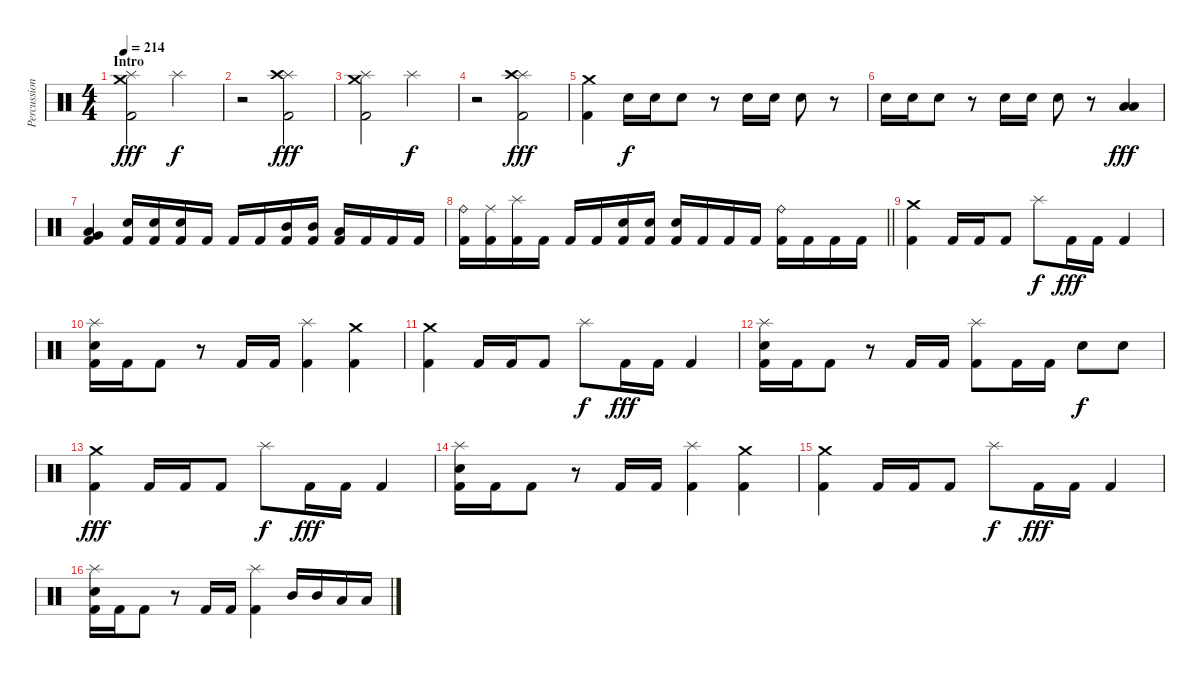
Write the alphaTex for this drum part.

\track ("Percussion" "Percussion") {instrument percussion}
\staff {score}
\articulation defaults
\ts (4 4)
\section ("" "Intro")
\tempo 214
\clef neutral
\ks c
("Splash (hit)" "Crash medium (hit)" "Kick (hit) 2").2{dy fff} "Splash (hit)".2{dy f} |
r.2 ("Splash (hit)" "Crash high (hit)" "Kick (hit) 2").2{dy fff} |
("Splash (hit)" "Crash medium (hit)" "Kick (hit) 2").2 "Splash (hit)".2{dy f} |
r.2 ("Splash (hit)" "Crash high (hit)" "Kick (hit) 2").2{dy fff} |
("Crash medium (hit)" "Kick (hit) 2").4 "Electric Snare (hit)".16{dy f} "Electric Snare (hit)".16 "Electric Snare (hit)".8 r.8 "Electric Snare (hit)".16 "Electric Snare (hit)".16 "Electric Snare (hit)".8 r.8 |
"Electric Snare (hit)".16 "Electric Snare (hit)".16 "Electric Snare (hit)".8 r.8 "Electric Snare (hit)".16 "Electric Snare (hit)".16 "Electric Snare (hit)".8 r.8 ("Low Tom (hit)" "Low Floor Tom (hit)").4{dy fff} |
("Very Low Tom (hit)" "Low Floor Tom (hit)" "Kick (hit) 2").4 ("Electric Snare (hit)" "Kick (hit) 2").16 ("Electric Snare (hit)" "Kick (hit) 2").16 ("Electric Snare (hit)" "Kick (hit) 2").16 "Kick (hit) 2".16 "Kick (hit) 2".16 "Kick (hit) 2".16 ("Mid Tom (hit)" "Kick (hit) 2").16 ("Mid Tom (hit)" "Kick (hit) 2").16 ("Low Tom (hit)" "Kick (hit) 2").16 "Kick (hit) 2".16 "Kick (hit) 2".16 "Kick (hit) 2".16 |
\barLineRight lightlight
("Ride (bell)" "Kick (hit) 2").16 ("Ride (middle)" "Kick (hit) 2").16 ("Splash (hit)" "Kick (hit) 2").16 "Kick (hit) 2".16 "Kick (hit) 2".16 "Kick (hit) 2".16 ("Electric Snare (hit)" "Kick (hit) 2").16 ("Electric Snare (hit)" "Kick (hit) 2").16 ("Electric Snare (hit)" "Kick (hit) 2").16 "Kick (hit) 2".16 "Kick (hit) 2".16 "Kick (hit) 2".16 ("Ride (bell)" "Kick (hit) 2").16 "Kick (hit) 2".16 "Kick (hit) 2".16 "Kick (hit) 2".16 |
\section ("" "")
("Crash medium (hit)" "Kick (hit) 2").4 "Kick (hit) 2".16 "Kick (hit) 2".16 "Kick (hit) 2".8 "Splash (hit)".8{dy f} "Kick (hit) 2".16{dy fff} "Kick (hit) 2".16 "Kick (hit) 2".4 |
("Splash (hit)" "Electric Snare (hit)" "Kick (hit) 2").16 "Kick (hit) 2".16 "Kick (hit) 2".8 r.8 "Kick (hit) 2".16 "Kick (hit) 2".16 ("Splash (hit)" "Kick (hit) 2").4 ("Crash medium (hit)" "Kick (hit) 2").4 |
("Crash medium (hit)" "Kick (hit) 2").4 "Kick (hit) 2".16 "Kick (hit) 2".16 "Kick (hit) 2".8 "Splash (hit)".8{dy f} "Kick (hit) 2".16{dy fff} "Kick (hit) 2".16 "Kick (hit) 2".4 |
("Splash (hit)" "Electric Snare (hit)" "Kick (hit) 2").16 "Kick (hit) 2".16 "Kick (hit) 2".8 r.8 "Kick (hit) 2".16 "Kick (hit) 2".16 ("Splash (hit)" "Kick (hit) 2").8 "Kick (hit) 2".16 "Kick (hit) 2".16 "Electric Snare (hit)".8{dy f} "Electric Snare (hit)".8 |
("Crash medium (hit)" "Kick (hit) 2").4{dy fff} "Kick (hit) 2".16 "Kick (hit) 2".16 "Kick (hit) 2".8 "Splash (hit)".8{dy f} "Kick (hit) 2".16{dy fff} "Kick (hit) 2".16 "Kick (hit) 2".4 |
("Splash (hit)" "Electric Snare (hit)" "Kick (hit) 2").16 "Kick (hit) 2".16 "Kick (hit) 2".8 r.8 "Kick (hit) 2".16 "Kick (hit) 2".16 ("Splash (hit)" "Kick (hit) 2").4 ("Crash medium (hit)" "Kick (hit) 2").4 |
("Crash medium (hit)" "Kick (hit) 2").4 "Kick (hit) 2".16 "Kick (hit) 2".16 "Kick (hit) 2".8 "Splash (hit)".8{dy f} "Kick (hit) 2".16{dy fff} "Kick (hit) 2".16 "Kick (hit) 2".4 |
("Splash (hit)" "Electric Snare (hit)" "Kick (hit) 2").16 "Kick (hit) 2".16 "Kick (hit) 2".8 r.8 "Kick (hit) 2".16 "Kick (hit) 2".16 ("Splash (hit)" "Kick (hit) 2").4 "Mid Tom (hit)".16 "Mid Tom (hit)".16 "Low Tom (hit)".16 "Low Tom (hit)".16
